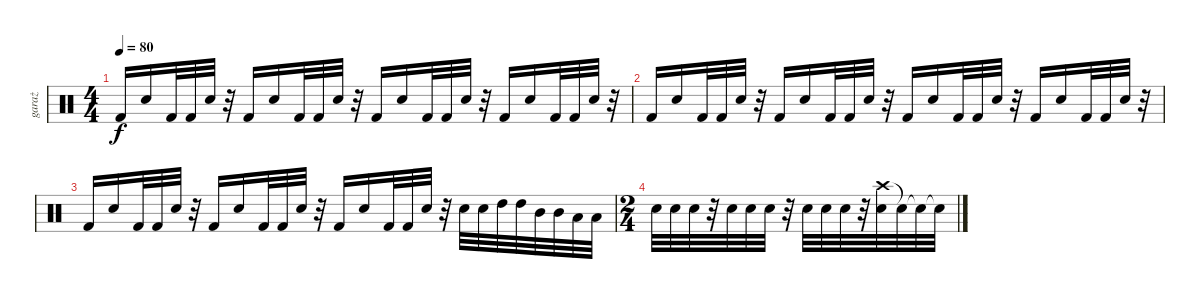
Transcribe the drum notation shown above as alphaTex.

\track ("garaż" "garaż") {instrument percussion}
\staff {score}
\articulation defaults
\ts (4 4)
\tempo 80
\clef neutral
\ks c "Kick (hit) 2".16{dy f} "Snare (hit) 2".16 "Kick (hit) 2".32 "Kick (hit) 2".32 "Snare (hit) 2".32
r.32 "Kick (hit) 2".16 "Snare (hit) 2".16 "Kick (hit) 2".32 "Kick (hit) 2".32 "Snare (hit) 2".32 r.32 "Kick (hit) 2".16 "Snare (hit) 2".16 "Kick (hit) 2".32 "Kick (hit) 2".32 "Snare (hit) 2".32 r.32 "Kick (hit) 2".16 "Snare (hit) 2".16 "Kick (hit) 2".32 "Kick (hit) 2".32 "Snare (hit) 2".32 r.32 |
"Kick (hit) 2".16 "Snare (hit) 2".16 "Kick (hit) 2".32 "Kick (hit) 2".32 "Snare (hit) 2".32 r.32 "Kick (hit) 2".16 "Snare (hit) 2".16 "Kick (hit) 2".32 "Kick (hit) 2".32 "Snare (hit) 2".32 r.32 "Kick (hit) 2".16 "Snare (hit) 2".16 "Kick (hit) 2".32 "Kick (hit) 2".32 "Snare (hit) 2".32 r.32 "Kick (hit) 2".16 "Snare (hit) 2".16 "Kick (hit) 2".32 "Kick (hit) 2".32 "Snare (hit) 2".32 r.32 |
"Kick (hit) 2".16 "Snare (hit) 2".16 "Kick (hit) 2".32 "Kick (hit) 2".32 "Snare (hit) 2".32 r.32 "Kick (hit) 2".16 "Snare (hit) 2".16 "Kick (hit) 2".32 "Kick (hit) 2".32 "Snare (hit) 2".32 r.32 "Kick (hit) 2".16 "Snare (hit) 2".16 "Kick (hit) 2".32 "Kick (hit) 2".32 "Snare (hit) 2".32 r.32 "Snare (hit) 2".32 "Snare (hit) 2".32 "High Tom (hit)".32 "High Tom (hit)".32 "Mid Tom (hit)".32 "Mid Tom (hit)".32 "Low Tom (hit)".32 "Low Tom (hit)".32 |
\ts (2 4)
"Snare (hit) 2".32 "Snare (hit) 2".32 "Snare (hit) 2".32 r.32 "Snare (hit) 2".32 "Snare (hit) 2".32 "Snare (hit) 2".32 r.32 "Snare (hit) 2".32 "Snare (hit) 2".32 "Snare (hit) 2".32 r.32 ("Crash high (hit)" "Snare (hit) 2").32 "Snare (hit)"{t}.32 "Snare (hit)"{t}.32 "Snare (hit)"{t}.32
